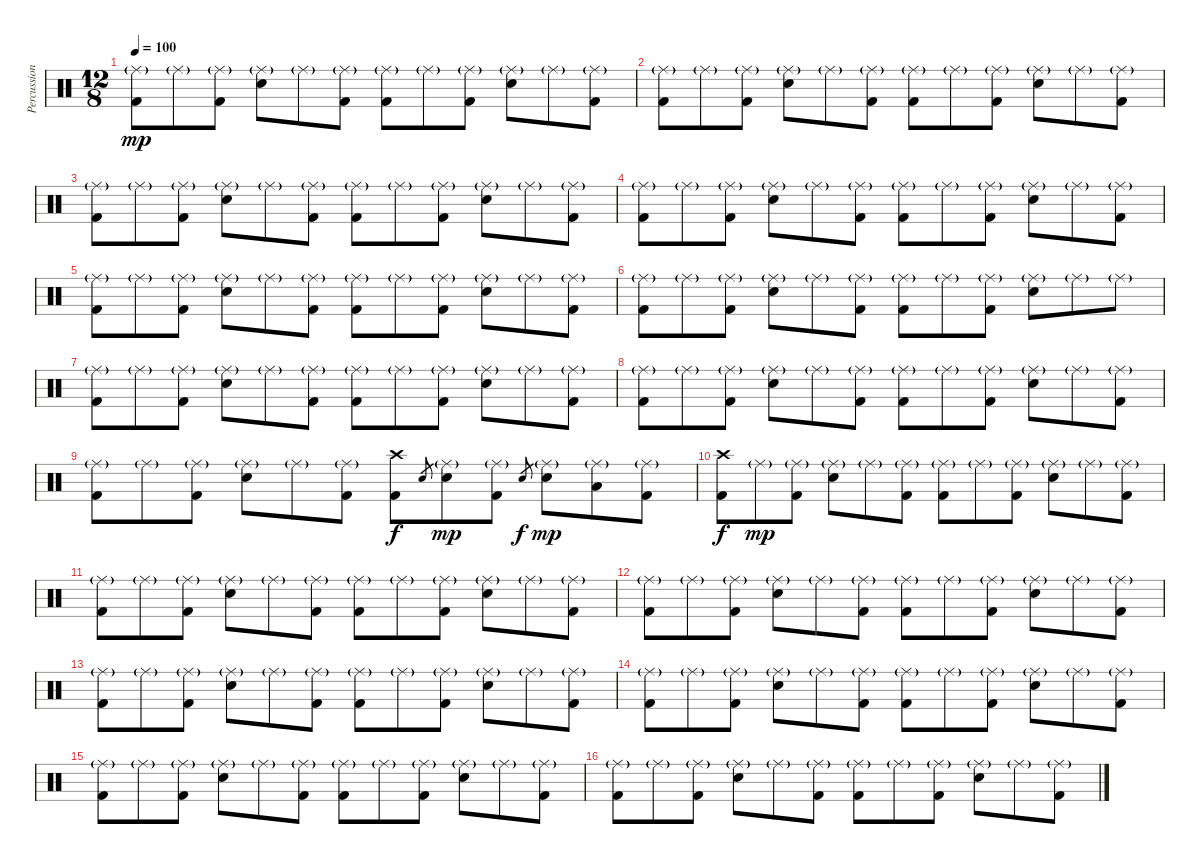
\track ("Percussion" "Percussion") {instrument percussion}
\staff {score}
\articulation defaults
\ts (12 8)
\tempo 100
\clef neutral
\ks c
("Ride (middle)"{g} "Kick (hit) 2").8{dy mp} "Ride (middle)"{g}.8 ("Ride (middle)"{g} "Kick (hit) 2").8 ("Ride (middle)"{g} "Electric Snare (hit)").8 "Ride (middle)"{g}.8 ("Ride (middle)"{g} "Kick (hit) 2").8 ("Ride (middle)"{g} "Kick (hit) 2").8 "Ride (middle)"{g}.8 ("Ride (middle)"{g} "Kick (hit) 2").8 ("Ride (middle)"{g} "Electric Snare (hit)").8 "Ride (middle)"{g}.8 ("Ride (middle)"{g} "Kick (hit) 2").8 |
("Ride (middle)"{g} "Kick (hit) 2").8 "Ride (middle)"{g}.8 ("Ride (middle)"{g} "Kick (hit) 2").8 ("Ride (middle)"{g} "Electric Snare (hit)").8 "Ride (middle)"{g}.8 ("Ride (middle)"{g} "Kick (hit) 2").8 ("Ride (middle)"{g} "Kick (hit) 2").8 "Ride (middle)"{g}.8 ("Ride (middle)"{g} "Kick (hit) 2").8 ("Ride (middle)"{g} "Electric Snare (hit)").8 "Ride (middle)"{g}.8 ("Ride (middle)"{g} "Kick (hit) 2").8 |
("Ride (middle)"{g} "Kick (hit) 2").8 "Ride (middle)"{g}.8 ("Ride (middle)"{g} "Kick (hit) 2").8 ("Ride (middle)"{g} "Electric Snare (hit)").8 "Ride (middle)"{g}.8 ("Ride (middle)"{g} "Kick (hit) 2").8 ("Ride (middle)"{g} "Kick (hit) 2").8 "Ride (middle)"{g}.8 ("Ride (middle)"{g} "Kick (hit) 2").8 ("Ride (middle)"{g} "Electric Snare (hit)").8 "Ride (middle)"{g}.8 ("Ride (middle)"{g} "Kick (hit) 2").8 |
("Ride (middle)"{g} "Kick (hit) 2").8 "Ride (middle)"{g}.8 ("Ride (middle)"{g} "Kick (hit) 2").8 ("Ride (middle)"{g} "Electric Snare (hit)").8 "Ride (middle)"{g}.8 ("Ride (middle)"{g} "Kick (hit) 2").8 ("Ride (middle)"{g} "Kick (hit) 2").8 "Ride (middle)"{g}.8 ("Ride (middle)"{g} "Kick (hit) 2").8 ("Ride (middle)"{g} "Electric Snare (hit)").8 "Ride (middle)"{g}.8 ("Ride (middle)"{g} "Kick (hit) 2").8 |
("Ride (middle)"{g} "Kick (hit) 2").8 "Ride (middle)"{g}.8 ("Ride (middle)"{g} "Kick (hit) 2").8 ("Ride (middle)"{g} "Electric Snare (hit)").8 "Ride (middle)"{g}.8 ("Ride (middle)"{g} "Kick (hit) 2").8 ("Ride (middle)"{g} "Kick (hit) 2").8 "Ride (middle)"{g}.8 ("Ride (middle)"{g} "Kick (hit) 2").8 ("Ride (middle)"{g} "Electric Snare (hit)").8 "Ride (middle)"{g}.8 ("Ride (middle)"{g} "Kick (hit) 2").8 |
("Ride (middle)"{g} "Kick (hit) 2").8 "Ride (middle)"{g}.8 ("Ride (middle)"{g} "Kick (hit) 2").8 ("Ride (middle)"{g} "Electric Snare (hit)").8 "Ride (middle)"{g}.8 ("Ride (middle)"{g} "Kick (hit) 2").8 ("Ride (middle)"{g} "Kick (hit) 2").8 "Ride (middle)"{g}.8 ("Ride (middle)"{g} "Kick (hit) 2").8 ("Ride (middle)"{g} "Electric Snare (hit)").8 "Ride (middle)"{g}.8 "Ride (middle)"{g}.8 |
("Ride (middle)"{g} "Kick (hit) 2").8 "Ride (middle)"{g}.8 ("Ride (middle)"{g} "Kick (hit) 2").8 ("Ride (middle)"{g} "Electric Snare (hit)").8 "Ride (middle)"{g}.8 ("Ride (middle)"{g} "Kick (hit) 2").8 ("Ride (middle)"{g} "Kick (hit) 2").8 "Ride (middle)"{g}.8 ("Ride (middle)"{g} "Kick (hit) 2").8 ("Ride (middle)"{g} "Electric Snare (hit)").8 "Ride (middle)"{g}.8 ("Ride (middle)"{g} "Kick (hit) 2").8 |
("Ride (middle)"{g} "Kick (hit) 2").8 "Ride (middle)"{g}.8 ("Ride (middle)"{g} "Kick (hit) 2").8 ("Ride (middle)"{g} "Electric Snare (hit)").8 "Ride (middle)"{g}.8 ("Ride (middle)"{g} "Kick (hit) 2").8 ("Ride (middle)"{g} "Kick (hit) 2").8 "Ride (middle)"{g}.8 ("Ride (middle)"{g} "Kick (hit) 2").8 ("Ride (middle)"{g} "Electric Snare (hit)").8 "Ride (middle)"{g}.8 ("Ride (middle)"{g} "Kick (hit) 2").8 |
("Ride (middle)"{g} "Kick (hit) 2").8 "Ride (middle)"{g}.8 ("Ride (middle)"{g} "Kick (hit) 2").8 ("Ride (middle)"{g} "Electric Snare (hit)").8 "Ride (middle)"{g}.8 ("Ride (middle)"{g} "Kick (hit) 2").8 ("Crash high (hit)" "Kick (hit) 2").8{dy f} "Electric Snare (hit)".8{gr} ("Ride (middle)"{g} "Electric Snare (hit)").8{dy mp} ("Ride (middle)"{g} "Kick (hit) 2").8 "Electric Snare (hit)".8{gr dy f} ("Ride (middle)"{g} "Electric Snare (hit)").8{dy mp} ("Ride (middle)"{g} "Low Tom (hit)").8 ("Ride (middle)"{g} "Kick (hit) 2").8 |
("Crash high (hit)" "Kick (hit) 2").8{dy f} "Ride (middle)"{g}.8{dy mp} ("Ride (middle)"{g} "Kick (hit) 2").8 ("Ride (middle)"{g} "Electric Snare (hit)").8 "Ride (middle)"{g}.8 ("Ride (middle)"{g} "Kick (hit) 2").8 ("Ride (middle)"{g} "Kick (hit) 2").8 "Ride (middle)"{g}.8 ("Ride (middle)"{g} "Kick (hit) 2").8 ("Ride (middle)"{g} "Electric Snare (hit)").8 "Ride (middle)"{g}.8 ("Ride (middle)"{g} "Kick (hit) 2").8 |
("Ride (middle)"{g} "Kick (hit) 2").8 "Ride (middle)"{g}.8 ("Ride (middle)"{g} "Kick (hit) 2").8 ("Ride (middle)"{g} "Electric Snare (hit)").8 "Ride (middle)"{g}.8 ("Ride (middle)"{g} "Kick (hit) 2").8 ("Ride (middle)"{g} "Kick (hit) 2").8 "Ride (middle)"{g}.8 ("Ride (middle)"{g} "Kick (hit) 2").8 ("Ride (middle)"{g} "Electric Snare (hit)").8 "Ride (middle)"{g}.8 ("Ride (middle)"{g} "Kick (hit) 2").8 |
("Ride (middle)"{g} "Kick (hit) 2").8 "Ride (middle)"{g}.8 ("Ride (middle)"{g} "Kick (hit) 2").8 ("Ride (middle)"{g} "Electric Snare (hit)").8 "Ride (middle)"{g}.8 ("Ride (middle)"{g} "Kick (hit) 2").8 ("Ride (middle)"{g} "Kick (hit) 2").8 "Ride (middle)"{g}.8 ("Ride (middle)"{g} "Kick (hit) 2").8 ("Ride (middle)"{g} "Electric Snare (hit)").8 "Ride (middle)"{g}.8 ("Ride (middle)"{g} "Kick (hit) 2").8 |
("Ride (middle)"{g} "Kick (hit) 2").8 "Ride (middle)"{g}.8 ("Ride (middle)"{g} "Kick (hit) 2").8 ("Ride (middle)"{g} "Electric Snare (hit)").8 "Ride (middle)"{g}.8 ("Ride (middle)"{g} "Kick (hit) 2").8 ("Ride (middle)"{g} "Kick (hit) 2").8 "Ride (middle)"{g}.8 ("Ride (middle)"{g} "Kick (hit) 2").8 ("Ride (middle)"{g} "Electric Snare (hit)").8 "Ride (middle)"{g}.8 ("Ride (middle)"{g} "Kick (hit) 2").8 |
("Ride (middle)"{g} "Kick (hit) 2").8 "Ride (middle)"{g}.8 ("Ride (middle)"{g} "Kick (hit) 2").8 ("Ride (middle)"{g} "Electric Snare (hit)").8 "Ride (middle)"{g}.8 ("Ride (middle)"{g} "Kick (hit) 2").8 ("Ride (middle)"{g} "Kick (hit) 2").8 "Ride (middle)"{g}.8 ("Ride (middle)"{g} "Kick (hit) 2").8 ("Ride (middle)"{g} "Electric Snare (hit)").8 "Ride (middle)"{g}.8 ("Ride (middle)"{g} "Kick (hit) 2").8 |
("Ride (middle)"{g} "Kick (hit) 2").8 "Ride (middle)"{g}.8 ("Ride (middle)"{g} "Kick (hit) 2").8 ("Ride (middle)"{g} "Electric Snare (hit)").8 "Ride (middle)"{g}.8 ("Ride (middle)"{g} "Kick (hit) 2").8 ("Ride (middle)"{g} "Kick (hit) 2").8 "Ride (middle)"{g}.8 ("Ride (middle)"{g} "Kick (hit) 2").8 ("Ride (middle)"{g} "Electric Snare (hit)").8 "Ride (middle)"{g}.8 ("Ride (middle)"{g} "Kick (hit) 2").8 |
("Ride (middle)"{g} "Kick (hit) 2").8 "Ride (middle)"{g}.8 ("Ride (middle)"{g} "Kick (hit) 2").8 ("Ride (middle)"{g} "Electric Snare (hit)").8 "Ride (middle)"{g}.8 ("Ride (middle)"{g} "Kick (hit) 2").8 ("Ride (middle)"{g} "Kick (hit) 2").8 "Ride (middle)"{g}.8 ("Ride (middle)"{g} "Kick (hit) 2").8 ("Ride (middle)"{g} "Electric Snare (hit)").8 "Ride (middle)"{g}.8 ("Ride (middle)"{g} "Kick (hit) 2").8
